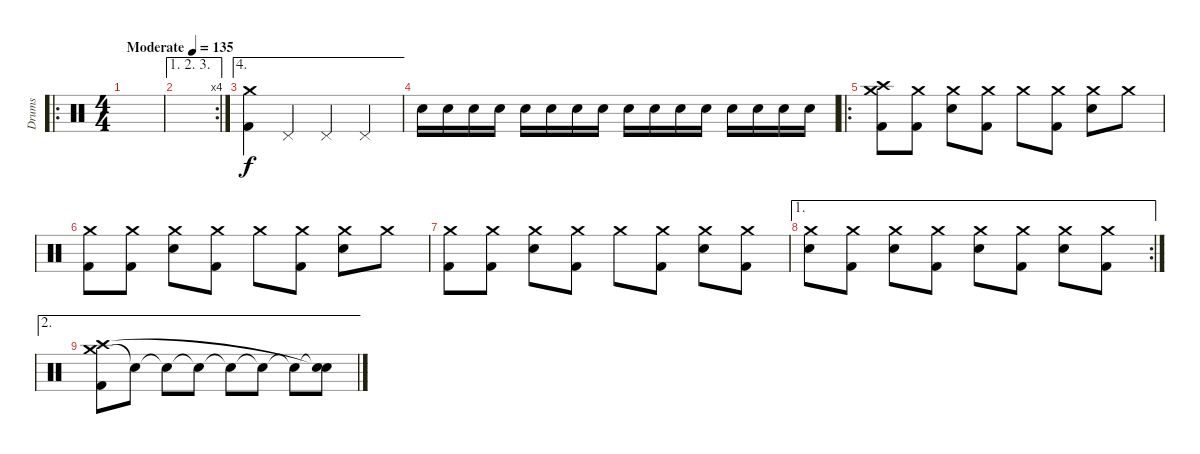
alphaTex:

\track ("Drums" "Drums") {instrument percussion}
\staff {score}
\articulation defaults
\ro
\ts (4 4)
\tempo (135 "Moderate")
\clef neutral
\ks c
|
\ae (1 2 3)
\rc 4
|
\ae 4
("Crash medium (hit)" "Kick (hit) 2").4 "Pedal Hi-Hat (hit)".4 "Pedal Hi-Hat (hit)".4 "Pedal Hi-Hat (hit)".4 |
"Electric Snare (hit)".16 "Electric Snare (hit)".16 "Electric Snare (hit)".16 "Electric Snare (hit)".16 "Electric Snare (hit)".16 "Electric Snare (hit)".16 "Electric Snare (hit)".16 "Electric Snare (hit)".16 "Electric Snare (hit)".16 "Electric Snare (hit)".16 "Electric Snare (hit)".16 "Electric Snare (hit)".16 "Electric Snare (hit)".16 "Electric Snare (hit)".16 "Electric Snare (hit)".16 "Electric Snare (hit)".16 |
\ro
("Crash medium (hit)" "Crash high (hit)" "Kick (hit) 2").8 ("Crash medium (hit)" "Kick (hit) 2").8 ("Crash medium (hit)" "Electric Snare (hit)").8 ("Crash medium (hit)" "Kick (hit) 2").8 "Crash medium (hit)".8 ("Crash medium (hit)" "Kick (hit) 2").8 ("Crash medium (hit)" "Electric Snare (hit)").8 "Crash medium (hit)".8 |
("Crash medium (hit)" "Kick (hit) 2").8 ("Crash medium (hit)" "Kick (hit) 2").8 ("Crash medium (hit)" "Electric Snare (hit)").8 ("Crash medium (hit)" "Kick (hit) 2").8 "Crash medium (hit)".8 ("Crash medium (hit)" "Kick (hit) 2").8 ("Crash medium (hit)" "Electric Snare (hit)").8 "Crash medium (hit)".8 |
("Crash medium (hit)" "Kick (hit) 2").8 ("Crash medium (hit)" "Kick (hit) 2").8 ("Crash medium (hit)" "Electric Snare (hit)").8 ("Crash medium (hit)" "Kick (hit) 2").8 "Crash medium (hit)".8 ("Crash medium (hit)" "Kick (hit) 2").8 ("Crash medium (hit)" "Electric Snare (hit)").8 ("Crash medium (hit)" "Kick (hit) 2").8 |
\ae 1
\rc 2
("Crash medium (hit)" "Electric Snare (hit)").8 ("Crash medium (hit)" "Kick (hit) 2").8 ("Crash medium (hit)" "Electric Snare (hit)").8 ("Crash medium (hit)" "Kick (hit) 2").8 ("Crash medium (hit)" "Electric Snare (hit)").8 ("Crash medium (hit)" "Kick (hit) 2").8 ("Crash medium (hit)" "Electric Snare (hit)").8 ("Crash medium (hit)" "Kick (hit) 2").8 |
\ae 2
("Crash medium (hit)" "Crash high (hit)" "Kick (hit) 2").8 "Snare (hit)"{t}.8 "Snare (hit)"{t}.8 "Snare (hit)"{t}.8 "Snare (hit)"{t}.8 "Snare (hit)"{t}.8 "Snare (hit)"{t}.8 ("Snare (hit)"{t} "Snare (hit)"{t}).8
